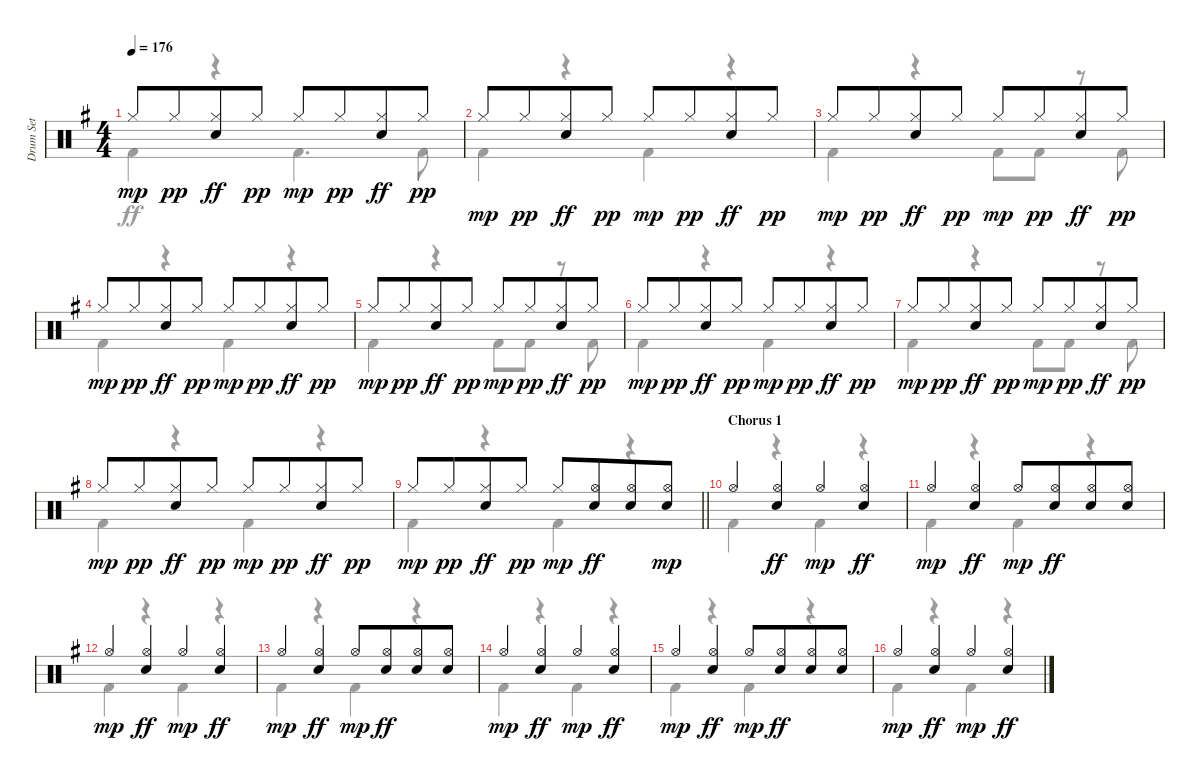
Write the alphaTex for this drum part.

\track ("Drum Set" "Drum Set") {instrument percussion}
\staff {score}
\articulation defaults
\voice
\ts (4 4)
\tempo 176
\clef neutral
\ks eminor "Hi-Hat (closed)".8{dy mp} "Hi-Hat (closed)".8{dy pp beam merge}
("Hi-Hat (closed)" "Electric Snare (hit)").8{dy ff} "Hi-Hat (closed)".8{dy pp} "Hi-Hat (closed)".8{dy mp} "Hi-Hat (closed)".8{dy pp beam merge} ("Hi-Hat (closed)" "Electric Snare (hit)").8{dy ff} "Hi-Hat (closed)".8{dy pp} |
"Hi-Hat (closed)".8{dy mp} "Hi-Hat (closed)".8{dy pp beam merge} ("Hi-Hat (closed)" "Electric Snare (hit)").8{dy ff} "Hi-Hat (closed)".8{dy pp} "Hi-Hat (closed)".8{dy mp} "Hi-Hat (closed)".8{dy pp beam merge} ("Hi-Hat (closed)" "Electric Snare (hit)").8{dy ff} "Hi-Hat (closed)".8{dy pp} |
"Hi-Hat (closed)".8{dy mp} "Hi-Hat (closed)".8{dy pp beam merge} ("Hi-Hat (closed)" "Electric Snare (hit)").8{dy ff} "Hi-Hat (closed)".8{dy pp} "Hi-Hat (closed)".8{dy mp} "Hi-Hat (closed)".8{dy pp beam merge} ("Hi-Hat (closed)" "Electric Snare (hit)").8{dy ff} "Hi-Hat (closed)".8{dy pp} |
"Hi-Hat (closed)".8{dy mp} "Hi-Hat (closed)".8{dy pp beam merge} ("Hi-Hat (closed)" "Electric Snare (hit)").8{dy ff} "Hi-Hat (closed)".8{dy pp} "Hi-Hat (closed)".8{dy mp} "Hi-Hat (closed)".8{dy pp beam merge} ("Hi-Hat (closed)" "Electric Snare (hit)").8{dy ff} "Hi-Hat (closed)".8{dy pp} |
"Hi-Hat (closed)".8{dy mp} "Hi-Hat (closed)".8{dy pp beam merge} ("Hi-Hat (closed)" "Electric Snare (hit)").8{dy ff} "Hi-Hat (closed)".8{dy pp} "Hi-Hat (closed)".8{dy mp} "Hi-Hat (closed)".8{dy pp beam merge} ("Hi-Hat (closed)" "Electric Snare (hit)").8{dy ff} "Hi-Hat (closed)".8{dy pp} |
"Hi-Hat (closed)".8{dy mp} "Hi-Hat (closed)".8{dy pp beam merge} ("Hi-Hat (closed)" "Electric Snare (hit)").8{dy ff} "Hi-Hat (closed)".8{dy pp} "Hi-Hat (closed)".8{dy mp} "Hi-Hat (closed)".8{dy pp beam merge} ("Hi-Hat (closed)" "Electric Snare (hit)").8{dy ff} "Hi-Hat (closed)".8{dy pp} |
"Hi-Hat (closed)".8{dy mp} "Hi-Hat (closed)".8{dy pp beam merge} ("Hi-Hat (closed)" "Electric Snare (hit)").8{dy ff} "Hi-Hat (closed)".8{dy pp} "Hi-Hat (closed)".8{dy mp} "Hi-Hat (closed)".8{dy pp beam merge} ("Hi-Hat (closed)" "Electric Snare (hit)").8{dy ff} "Hi-Hat (closed)".8{dy pp} |
"Hi-Hat (closed)".8{dy mp} "Hi-Hat (closed)".8{dy pp beam merge} ("Hi-Hat (closed)" "Electric Snare (hit)").8{dy ff} "Hi-Hat (closed)".8{dy pp} "Hi-Hat (closed)".8{dy mp} "Hi-Hat (closed)".8{dy pp beam merge} ("Hi-Hat (closed)" "Electric Snare (hit)").8{dy ff} "Hi-Hat (closed)".8{dy pp} |
\barLineRight lightlight "Hi-Hat (closed)".8{dy mp} "Hi-Hat (closed)".8{dy pp beam merge}
("Hi-Hat (closed)" "Electric Snare (hit)").8{dy ff} "Hi-Hat (closed)".8{dy pp} "Hi-Hat (closed)".8{dy mp beam merge} ("Hi-Hat (open)" "Electric Snare (hit)").8{dy ff beam merge} ("Hi-Hat (open)" "Electric Snare (hit)").8 ("Electric Snare (hit)" "Hi-Hat (open)").8{dy mp} |
\section ("" "Chorus 1")
"Hi-Hat (open)".4 ("Hi-Hat (open)" "Electric Snare (hit)").4{dy ff} "Hi-Hat (open)".4{dy mp} ("Hi-Hat (open)" "Electric Snare (hit)").4{dy ff} |
"Hi-Hat (open)".4{dy mp} ("Hi-Hat (open)" "Electric Snare (hit)").4{dy ff} "Hi-Hat (open)".8{dy mp} ("Hi-Hat (open)" "Electric Snare (hit)").8{dy ff beam merge} ("Hi-Hat (open)" "Electric Snare (hit)").8 ("Hi-Hat (open)" "Electric Snare (hit)").8 |
"Hi-Hat (open)".4{dy mp} ("Hi-Hat (open)" "Electric Snare (hit)").4{dy ff} "Hi-Hat (open)".4{dy mp} ("Hi-Hat (open)" "Electric Snare (hit)").4{dy ff} |
"Hi-Hat (open)".4{dy mp} ("Hi-Hat (open)" "Electric Snare (hit)").4{dy ff} "Hi-Hat (open)".8{dy mp} ("Hi-Hat (open)" "Electric Snare (hit)").8{dy ff beam merge} ("Hi-Hat (open)" "Electric Snare (hit)").8 ("Hi-Hat (open)" "Electric Snare (hit)").8 |
"Hi-Hat (open)".4{dy mp} ("Hi-Hat (open)" "Electric Snare (hit)").4{dy ff} "Hi-Hat (open)".4{dy mp} ("Hi-Hat (open)" "Electric Snare (hit)").4{dy ff} |
"Hi-Hat (open)".4{dy mp} ("Hi-Hat (open)" "Electric Snare (hit)").4{dy ff} "Hi-Hat (open)".8{dy mp} ("Hi-Hat (open)" "Electric Snare (hit)").8{dy ff beam merge} ("Hi-Hat (open)" "Electric Snare (hit)").8 ("Hi-Hat (open)" "Electric Snare (hit)").8 |
"Hi-Hat (open)".4{dy mp} ("Hi-Hat (open)" "Electric Snare (hit)").4{dy ff} "Hi-Hat (open)".4{dy mp} ("Hi-Hat (open)" "Electric Snare (hit)").4{dy ff}
\voice
\clef neutral
\ottava regular
\simile none
\ks eminor "Kick (hit) 2".4{dy ff}
r.4 "Kick (hit) 2".4{d} "Kick (hit) 2".8 |
"Kick (hit) 2".4 r.4 "Kick (hit) 2".4 r.4 |
"Kick (hit) 2".4 r.4 "Kick (hit) 2".8 "Kick (hit) 2".8 r.8 "Kick (hit) 2".8 |
"Kick (hit) 2".4 r.4 "Kick (hit) 2".4 r.4 |
"Kick (hit) 2".4 r.4 "Kick (hit) 2".8 "Kick (hit) 2".8 r.8 "Kick (hit) 2".8 |
"Kick (hit) 2".4 r.4 "Kick (hit) 2".4 r.4 |
"Kick (hit) 2".4 r.4 "Kick (hit) 2".8 "Kick (hit) 2".8 r.8 "Kick (hit) 2".8 |
"Kick (hit) 2".4 r.4 "Kick (hit) 2".4 r.4 |
\barLineRight lightlight "Kick (hit) 2".4
r.4 "Kick (hit) 2".4 r.4 |
"Kick (hit) 2".4 r.4 "Kick (hit) 2".4 r.4 |
"Kick (hit) 2".4 r.4 "Kick (hit) 2".4 r.4 |
"Kick (hit) 2".4 r.4 "Kick (hit) 2".4 r.4 |
"Kick (hit) 2".4 r.4 "Kick (hit) 2".4 r.4 |
"Kick (hit) 2".4 r.4 "Kick (hit) 2".4 r.4 |
"Kick (hit) 2".4 r.4 "Kick (hit) 2".4 r.4 |
"Kick (hit) 2".4 r.4 "Kick (hit) 2".4 r.4
